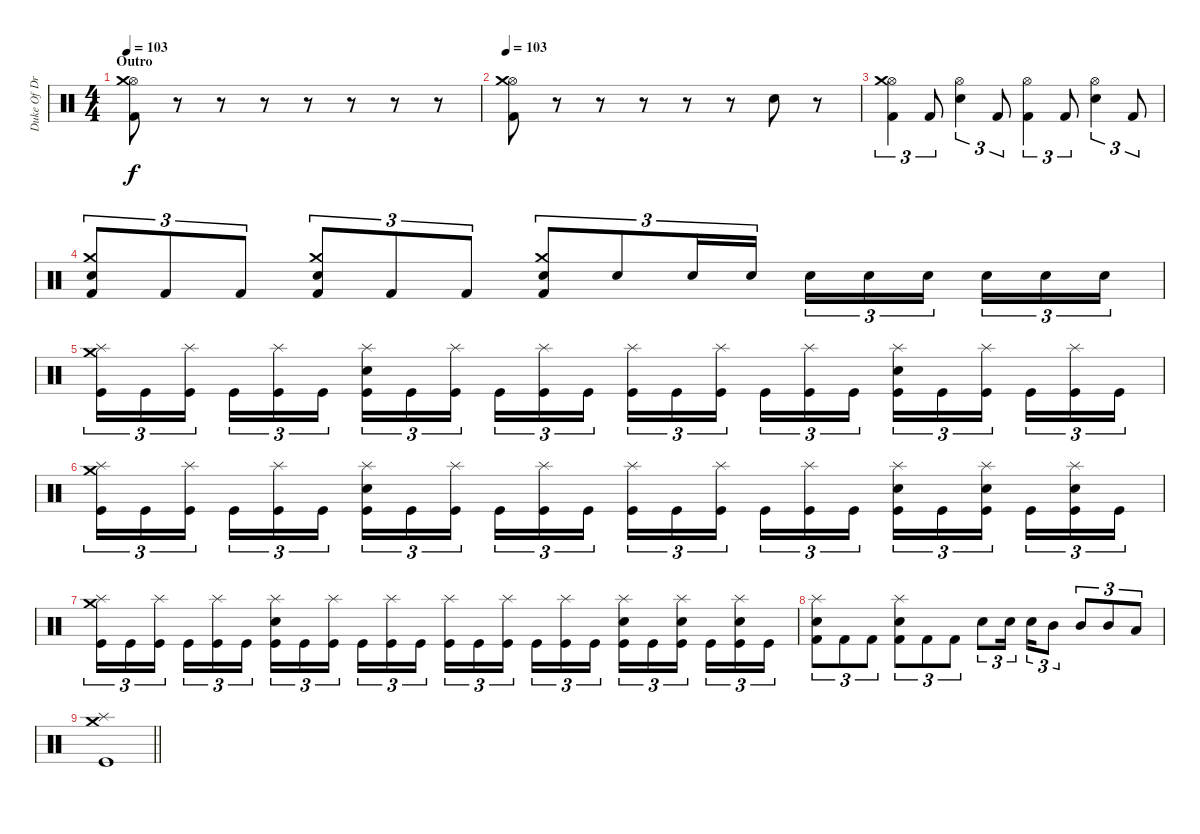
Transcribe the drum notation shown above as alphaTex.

\track ("Duke Of Drumington" "Duke Of Dr") {instrument percussion}
\staff {score}
\articulation defaults
\ts (4 4)
\section ("" "Outro")
\tempo 103
\clef neutral
\ks c
("Kick (hit) 2" "Hi-Hat (open)" "Crash medium (hit)").8{dy f} r.8 r.8 r.8 r.8 r.8 r.8 r.8 |
\tempo 103
("Kick (hit) 2" "Hi-Hat (open)" "Crash medium (hit)").8 r.8 r.8 r.8 r.8 r.8 "Electric Snare (hit)".8 r.8 |
("Kick (hit) 2" "Hi-Hat (open)" "Crash medium (hit)").4{tu (3 2)} "Kick (hit) 2".8{tu (3 2)} ("Electric Snare (hit)" "Hi-Hat (open)").4{tu (3 2)} "Kick (hit) 2".8{tu (3 2)} ("Kick (hit) 2" "Hi-Hat (open)").4{tu (3 2)} "Kick (hit) 2".8{tu (3 2)} ("Electric Snare (hit)" "Hi-Hat (open)").4{tu (3 2)} "Kick (hit) 2".8{tu (3 2)} |
("Kick (hit) 2" "Crash medium (hit)" "Electric Snare (hit)").8{tu (3 2)} "Kick (hit) 2".8{tu (3 2)} "Kick (hit) 2".8{tu (3 2)} ("Kick (hit) 2" "Crash medium (hit)" "Electric Snare (hit)").8{tu (3 2)} "Kick (hit) 2".8{tu (3 2)} "Kick (hit) 2".8{tu (3 2)} ("Kick (hit) 2" "Crash medium (hit)" "Electric Snare (hit)").8{tu (3 2)} "Electric Snare (hit)".8{tu (3 2)} "Electric Snare (hit)".16{tu (3 2)} "Electric Snare (hit)".16{tu (3 2)} "Electric Snare (hit)".16{tu (3 2)} "Electric Snare (hit)".16{tu (3 2)} "Electric Snare (hit)".16{tu (3 2) beam splitsecondary} "Electric Snare (hit)".16{tu (3 2)} "Electric Snare (hit)".16{tu (3 2)} "Electric Snare (hit)".16{tu (3 2)} |
("Kick (hit)" "Splash (hit)" "Crash medium (hit)").16{tu (3 2)} "Kick (hit)".16{tu (3 2)} ("Kick (hit)" "Splash (hit)").16{tu (3 2) beam splitsecondary} "Kick (hit)".16{tu (3 2)} ("Kick (hit)" "Splash (hit)").16{tu (3 2)} "Kick (hit)".16{tu (3 2)} ("Kick (hit)" "Splash (hit)" "Electric Snare (hit)").16{tu (3 2)} "Kick (hit)".16{tu (3 2)} ("Kick (hit)" "Splash (hit)").16{tu (3 2) beam splitsecondary} "Kick (hit)".16{tu (3 2)} ("Kick (hit)" "Splash (hit)").16{tu (3 2)} "Kick (hit)".16{tu (3 2)} ("Kick (hit)" "Splash (hit)").16{tu (3 2)} "Kick (hit)".16{tu (3 2)} ("Kick (hit)" "Splash (hit)").16{tu (3 2) beam splitsecondary} "Kick (hit)".16{tu (3 2)} ("Kick (hit)" "Splash (hit)").16{tu (3 2)} "Kick (hit)".16{tu (3 2)} ("Kick (hit)" "Splash (hit)" "Electric Snare (hit)").16{tu (3 2)} "Kick (hit)".16{tu (3 2)} ("Kick (hit)" "Splash (hit)").16{tu (3 2) beam splitsecondary} "Kick (hit)".16{tu (3 2)} ("Kick (hit)" "Splash (hit)").16{tu (3 2)} "Kick (hit)".16{tu (3 2)} |
("Kick (hit)" "Splash (hit)" "Crash medium (hit)").16{tu (3 2)} "Kick (hit)".16{tu (3 2)} ("Kick (hit)" "Splash (hit)").16{tu (3 2) beam splitsecondary} "Kick (hit)".16{tu (3 2)} ("Kick (hit)" "Splash (hit)").16{tu (3 2)} "Kick (hit)".16{tu (3 2)} ("Kick (hit)" "Splash (hit)" "Electric Snare (hit)").16{tu (3 2)} "Kick (hit)".16{tu (3 2)} ("Kick (hit)" "Splash (hit)").16{tu (3 2) beam splitsecondary} "Kick (hit)".16{tu (3 2)} ("Kick (hit)" "Splash (hit)").16{tu (3 2)} "Kick (hit)".16{tu (3 2)} ("Kick (hit)" "Splash (hit)").16{tu (3 2)} "Kick (hit)".16{tu (3 2)} ("Kick (hit)" "Splash (hit)").16{tu (3 2) beam splitsecondary} "Kick (hit)".16{tu (3 2)} ("Kick (hit)" "Splash (hit)").16{tu (3 2)} "Kick (hit)".16{tu (3 2)} ("Kick (hit)" "Splash (hit)" "Electric Snare (hit)").16{tu (3 2)} "Kick (hit)".16{tu (3 2)} ("Kick (hit)" "Splash (hit)" "Electric Snare (hit)").16{tu (3 2) beam splitsecondary} "Kick (hit)".16{tu (3 2)} ("Kick (hit)" "Splash (hit)" "Electric Snare (hit)").16{tu (3 2)} "Kick (hit)".16{tu (3 2)} |
("Kick (hit)" "Splash (hit)" "Crash medium (hit)").16{tu (3 2)} "Kick (hit)".16{tu (3 2)} ("Kick (hit)" "Splash (hit)").16{tu (3 2) beam splitsecondary} "Kick (hit)".16{tu (3 2)} ("Kick (hit)" "Splash (hit)").16{tu (3 2)} "Kick (hit)".16{tu (3 2)} ("Kick (hit)" "Splash (hit)" "Electric Snare (hit)").16{tu (3 2)} "Kick (hit)".16{tu (3 2)} ("Kick (hit)" "Splash (hit)").16{tu (3 2) beam splitsecondary} "Kick (hit)".16{tu (3 2)} ("Kick (hit)" "Splash (hit)").16{tu (3 2)} "Kick (hit)".16{tu (3 2)} ("Kick (hit)" "Splash (hit)").16{tu (3 2)} "Kick (hit)".16{tu (3 2)} ("Kick (hit)" "Splash (hit)").16{tu (3 2) beam splitsecondary} "Kick (hit)".16{tu (3 2)} ("Kick (hit)" "Splash (hit)").16{tu (3 2)} "Kick (hit)".16{tu (3 2)} ("Kick (hit)" "Splash (hit)" "Electric Snare (hit)").16{tu (3 2)} "Kick (hit)".16{tu (3 2)} ("Kick (hit)" "Splash (hit)" "Electric Snare (hit)").16{tu (3 2) beam splitsecondary} "Kick (hit)".16{tu (3 2)} ("Kick (hit)" "Splash (hit)" "Electric Snare (hit)").16{tu (3 2)} "Kick (hit)".16{tu (3 2)} |
("Kick (hit) 2" "Electric Snare (hit)" "Splash (hit)").8{tu (3 2)} "Kick (hit) 2".8{tu (3 2)} "Kick (hit) 2".8{tu (3 2)} ("Kick (hit) 2" "Electric Snare (hit)" "Splash (hit)").8{tu (3 2)} "Kick (hit) 2".8{tu (3 2)} "Kick (hit) 2".8{tu (3 2)} "Electric Snare (hit)".8{tu (3 2)} "Electric Snare (hit)".16{tu (3 2) beam splitsecondary} "Electric Snare (hit)".16{tu (3 2)} "Mid Tom (hit)".8{tu (3 2)} "Mid Tom (hit)".8{tu (3 2)} "Mid Tom (hit)".8{tu (3 2)} "Low Tom (hit)".8{tu (3 2)} |
\barLineRight lightlight
("Kick (hit)" "Splash (hit)" "Crash medium (hit)").1
